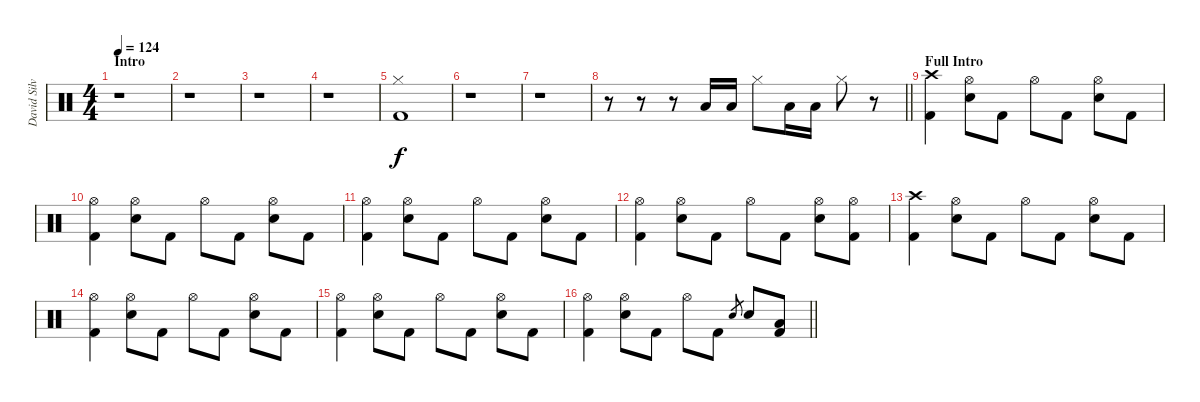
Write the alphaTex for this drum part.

\track ("David Silvera" "David Silv") {instrument percussion}
\staff {score}
\articulation defaults
\ts (4 4)
\section ("" "Intro")
\tempo 124
\clef neutral
\ks c
r.1{dy f} |
r.1 |
r.1 |
r.1 |
("Hi-Hat (closed)" "Kick (hit) 2").1 |
r.1 |
r.1 |
\barLineRight lightlight
r.8 r.8 r.8 "Low Tom (hit)".16 "Low Tom (hit)".16 "Hi-Hat (closed)".8 "Low Floor Tom (hit)".16 "Low Floor Tom (hit)".16 "Hi-Hat (closed)".8 r.8 |
\section ("" "Full Intro")
("Crash high (hit)" "Kick (hit) 2").4 ("Hi-Hat (open)" "Electric Snare (hit)").8 "Kick (hit) 2".8 "Hi-Hat (open)".8 "Kick (hit) 2".8 ("Hi-Hat (open)" "Electric Snare (hit)").8 "Kick (hit) 2".8 |
("Hi-Hat (open)" "Kick (hit) 2").4 ("Hi-Hat (open)" "Electric Snare (hit)").8 "Kick (hit) 2".8 "Hi-Hat (open)".8 "Kick (hit) 2".8 ("Hi-Hat (open)" "Electric Snare (hit)").8 "Kick (hit) 2".8 |
("Hi-Hat (open)" "Kick (hit) 2").4 ("Hi-Hat (open)" "Electric Snare (hit)").8 "Kick (hit) 2".8 "Hi-Hat (open)".8 "Kick (hit) 2".8 ("Hi-Hat (open)" "Electric Snare (hit)").8 "Kick (hit) 2".8 |
("Hi-Hat (open)" "Kick (hit) 2").4 ("Hi-Hat (open)" "Electric Snare (hit)").8 "Kick (hit) 2".8 "Hi-Hat (open)".8 "Kick (hit) 2".8 ("Hi-Hat (open)" "Electric Snare (hit)").8 ("Hi-Hat (open)" "Kick (hit) 2").8 |
("Crash high (hit)" "Kick (hit) 2").4 ("Hi-Hat (open)" "Electric Snare (hit)").8 "Kick (hit) 2".8 "Hi-Hat (open)".8 "Kick (hit) 2".8 ("Hi-Hat (open)" "Electric Snare (hit)").8 "Kick (hit) 2".8 |
("Hi-Hat (open)" "Kick (hit) 2").4 ("Hi-Hat (open)" "Electric Snare (hit)").8 "Kick (hit) 2".8 "Hi-Hat (open)".8 "Kick (hit) 2".8 ("Hi-Hat (open)" "Electric Snare (hit)").8 "Kick (hit) 2".8 |
("Hi-Hat (open)" "Kick (hit) 2").4 ("Hi-Hat (open)" "Electric Snare (hit)").8 "Kick (hit) 2".8 "Hi-Hat (open)".8 "Kick (hit) 2".8 ("Hi-Hat (open)" "Electric Snare (hit)").8 "Kick (hit) 2".8 |
\barLineRight lightlight
("Hi-Hat (open)" "Kick (hit) 2").4 ("Hi-Hat (open)" "Electric Snare (hit)").8 "Kick (hit) 2".8 "Hi-Hat (open)".8 "Kick (hit) 2".8 "Electric Snare (hit)".8{gr} "Electric Snare (hit)".8 ("Low Floor Tom (hit)" "Kick (hit) 2").8
